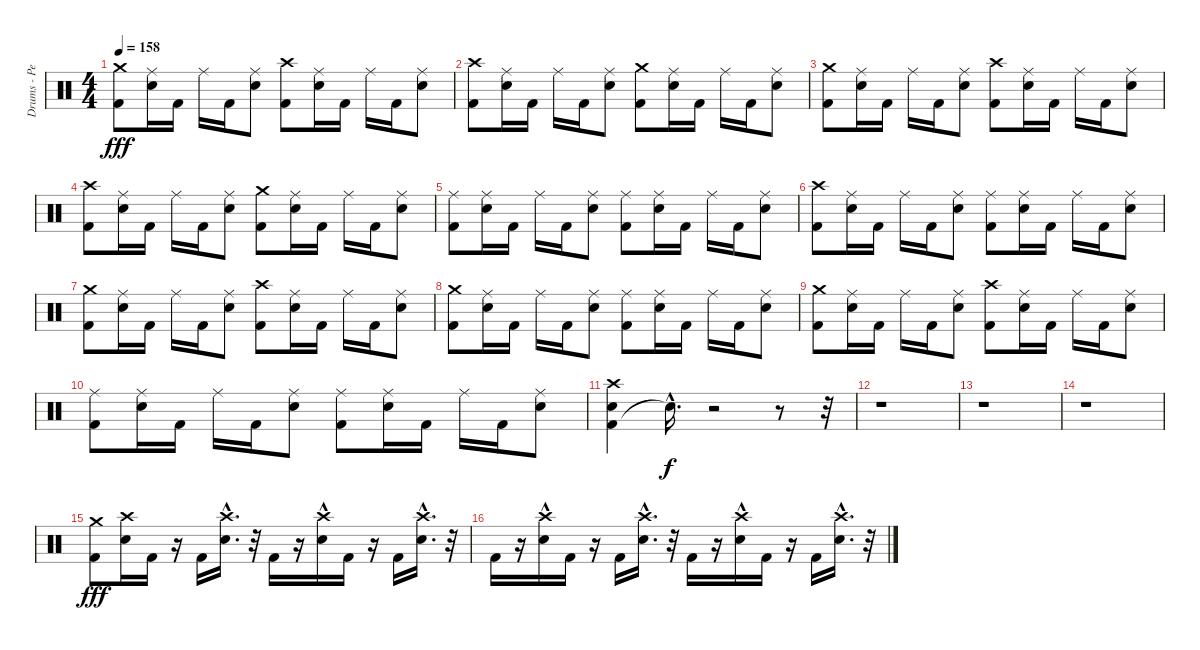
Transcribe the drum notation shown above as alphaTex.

\track ("Drums - Pete Finestone" "Drums - Pe") {instrument percussion}
\staff {score}
\articulation defaults
\ts (4 4)
\tempo 158
\clef neutral
\ks c
("Kick (hit) 2" "Crash medium (hit)").8{dy fff} ("Electric Snare (hit)" "Ride (middle)").16 "Kick (hit) 2".16 "Ride (middle)".16 "Kick (hit) 2".16 ("Electric Snare (hit)" "Ride (middle)").8 ("Kick (hit) 2" "Crash high (hit)").8 ("Electric Snare (hit)" "Ride (middle)").16 "Kick (hit) 2".16 "Ride (middle)".16 "Kick (hit) 2".16 ("Electric Snare (hit)" "Ride (middle)").8 |
("Kick (hit) 2" "Crash high (hit)").8 ("Electric Snare (hit)" "Ride (middle)").16 "Kick (hit) 2".16 "Ride (middle)".16 "Kick (hit) 2".16 ("Electric Snare (hit)" "Ride (middle)").8 ("Kick (hit) 2" "Crash medium (hit)").8 ("Electric Snare (hit)" "Ride (middle)").16 "Kick (hit) 2".16 "Ride (middle)".16 "Kick (hit) 2".16 ("Electric Snare (hit)" "Ride (middle)").8 |
("Kick (hit) 2" "Crash medium (hit)").8 ("Electric Snare (hit)" "Ride (middle)").16 "Kick (hit) 2".16 "Ride (middle)".16 "Kick (hit) 2".16 ("Electric Snare (hit)" "Ride (middle)").8 ("Kick (hit) 2" "Crash high (hit)").8 ("Electric Snare (hit)" "Ride (middle)").16 "Kick (hit) 2".16 "Ride (middle)".16 "Kick (hit) 2".16 ("Electric Snare (hit)" "Ride (middle)").8 |
("Kick (hit) 2" "Crash high (hit)").8 ("Electric Snare (hit)" "Ride (middle)").16 "Kick (hit) 2".16 "Ride (middle)".16 "Kick (hit) 2".16 ("Electric Snare (hit)" "Ride (middle)").8 ("Kick (hit) 2" "Crash medium (hit)").8 ("Electric Snare (hit)" "Ride (middle)").16 "Kick (hit) 2".16 "Ride (middle)".16 "Kick (hit) 2".16 ("Electric Snare (hit)" "Ride (middle)").8 |
("Kick (hit) 2" "Ride (middle)").8 ("Electric Snare (hit)" "Ride (middle)").16 "Kick (hit) 2".16 "Ride (middle)".16 "Kick (hit) 2".16 ("Electric Snare (hit)" "Ride (middle)").8 ("Kick (hit) 2" "Ride (middle)").8 ("Electric Snare (hit)" "Ride (middle)").16 "Kick (hit) 2".16 "Ride (middle)".16 "Kick (hit) 2".16 ("Electric Snare (hit)" "Ride (middle)").8 |
("Kick (hit) 2" "Crash high (hit)").8 ("Electric Snare (hit)" "Ride (middle)").16 "Kick (hit) 2".16 "Ride (middle)".16 "Kick (hit) 2".16 ("Electric Snare (hit)" "Ride (middle)").8 ("Kick (hit) 2" "Ride (middle)").8 ("Electric Snare (hit)" "Ride (middle)").16 "Kick (hit) 2".16 "Ride (middle)".16 "Kick (hit) 2".16 ("Electric Snare (hit)" "Ride (middle)").8 |
("Kick (hit) 2" "Crash medium (hit)").8 ("Electric Snare (hit)" "Ride (middle)").16 "Kick (hit) 2".16 "Ride (middle)".16 "Kick (hit) 2".16 ("Electric Snare (hit)" "Ride (middle)").8 ("Kick (hit) 2" "Crash high (hit)").8 ("Electric Snare (hit)" "Ride (middle)").16 "Kick (hit) 2".16 "Ride (middle)".16 "Kick (hit) 2".16 ("Electric Snare (hit)" "Ride (middle)").8 |
("Kick (hit) 2" "Crash medium (hit)").8 ("Electric Snare (hit)" "Ride (middle)").16 "Kick (hit) 2".16 "Ride (middle)".16 "Kick (hit) 2".16 ("Electric Snare (hit)" "Ride (middle)").8 ("Kick (hit) 2" "Ride (middle)").8 ("Electric Snare (hit)" "Ride (middle)").16 "Kick (hit) 2".16 "Ride (middle)".16 "Kick (hit) 2".16 ("Electric Snare (hit)" "Ride (middle)").8 |
("Kick (hit) 2" "Crash medium (hit)").8 ("Electric Snare (hit)" "Ride (middle)").16 "Kick (hit) 2".16 "Ride (middle)".16 "Kick (hit) 2".16 ("Electric Snare (hit)" "Ride (middle)").8 ("Kick (hit) 2" "Crash high (hit)").8 ("Electric Snare (hit)" "Ride (middle)").16 "Kick (hit) 2".16 "Ride (middle)".16 "Kick (hit) 2".16 ("Electric Snare (hit)" "Ride (middle)").8 |
("Kick (hit) 2" "Ride (middle)").8 ("Electric Snare (hit)" "Ride (middle)").16 "Kick (hit) 2".16 "Ride (middle)".16 "Kick (hit) 2".16 ("Electric Snare (hit)" "Ride (middle)").8 ("Kick (hit) 2" "Ride (middle)").8 ("Electric Snare (hit)" "Ride (middle)").16 "Kick (hit) 2".16 "Ride (middle)".16 "Kick (hit) 2".16 ("Electric Snare (hit)" "Ride (middle)").8 |
("Kick (hit) 2" "Electric Snare (hit)" "Crash high (hit)").4 "Snare (hit)"{hac t}.16{d dy f} r.2 r.8 r.32 |
r.1 |
r.1 |
r.1 |
("Kick (hit) 2" "Crash medium (hit)").8{dy fff} ("Electric Snare (hit)" "Crash high (hit)").16 "Kick (hit) 2".16 r.16 "Kick (hit) 2".16 ("Electric Snare (hit)" "Crash high (hit)"{hac}).16{d} r.32 "Kick (hit) 2".16 r.16 ("Electric Snare (hit)" "Crash high (hit)"{hac}).16 "Kick (hit) 2".16 r.16 "Kick (hit) 2".16 ("Electric Snare (hit)" "Crash high (hit)"{hac}).16{d} r.32 |
"Kick (hit) 2".16 r.16 ("Electric Snare (hit)" "Crash high (hit)"{hac}).16 "Kick (hit) 2".16 r.16 "Kick (hit) 2".16 ("Electric Snare (hit)" "Crash high (hit)"{hac}).16{d} r.32 "Kick (hit) 2".16 r.16 ("Electric Snare (hit)" "Crash high (hit)"{hac}).16 "Kick (hit) 2".16 r.16 "Kick (hit) 2".16 ("Electric Snare (hit)" "Crash high (hit)"{hac}).16{d} r.32
